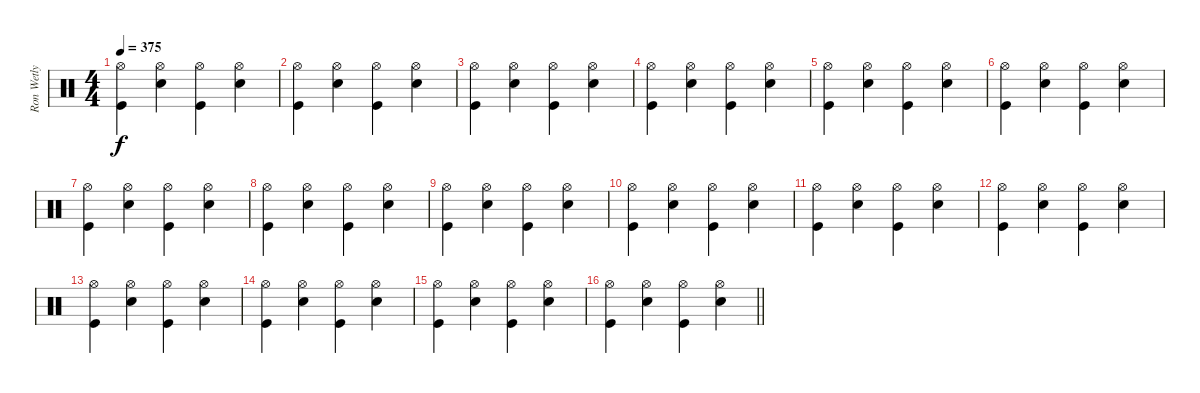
\track ("Ron Wetly (Drums)" "Ron Wetly ") {instrument percussion}
\staff {score}
\articulation defaults
\ts (4 4)
\tempo 375
\clef neutral
\ks c
("Hi-Hat (open)" "Kick (hit)").4{dy f} ("Hi-Hat (open)" "Snare (hit) 2").4 ("Hi-Hat (open)" "Kick (hit)").4 ("Hi-Hat (open)" "Snare (hit) 2").4 |
("Hi-Hat (open)" "Kick (hit)").4 ("Hi-Hat (open)" "Snare (hit) 2").4 ("Hi-Hat (open)" "Kick (hit)").4 ("Hi-Hat (open)" "Snare (hit) 2").4 |
("Hi-Hat (open)" "Kick (hit)").4 ("Hi-Hat (open)" "Snare (hit) 2").4 ("Hi-Hat (open)" "Kick (hit)").4 ("Hi-Hat (open)" "Snare (hit) 2").4 |
("Hi-Hat (open)" "Kick (hit)").4 ("Hi-Hat (open)" "Snare (hit) 2").4 ("Hi-Hat (open)" "Kick (hit)").4 ("Hi-Hat (open)" "Snare (hit) 2").4 |
("Hi-Hat (open)" "Kick (hit)").4 ("Hi-Hat (open)" "Snare (hit) 2").4 ("Hi-Hat (open)" "Kick (hit)").4 ("Hi-Hat (open)" "Snare (hit) 2").4 |
("Hi-Hat (open)" "Kick (hit)").4 ("Hi-Hat (open)" "Snare (hit) 2").4 ("Hi-Hat (open)" "Kick (hit)").4 ("Hi-Hat (open)" "Snare (hit) 2").4 |
("Hi-Hat (open)" "Kick (hit)").4 ("Hi-Hat (open)" "Snare (hit) 2").4 ("Hi-Hat (open)" "Kick (hit)").4 ("Hi-Hat (open)" "Snare (hit) 2").4 |
("Hi-Hat (open)" "Kick (hit)").4 ("Hi-Hat (open)" "Snare (hit) 2").4 ("Hi-Hat (open)" "Kick (hit)").4 ("Hi-Hat (open)" "Snare (hit) 2").4 |
("Hi-Hat (open)" "Kick (hit)").4 ("Hi-Hat (open)" "Snare (hit) 2").4 ("Hi-Hat (open)" "Kick (hit)").4 ("Hi-Hat (open)" "Snare (hit) 2").4 |
("Hi-Hat (open)" "Kick (hit)").4 ("Hi-Hat (open)" "Snare (hit) 2").4 ("Hi-Hat (open)" "Kick (hit)").4 ("Hi-Hat (open)" "Snare (hit) 2").4 |
("Hi-Hat (open)" "Kick (hit)").4 ("Hi-Hat (open)" "Snare (hit) 2").4 ("Hi-Hat (open)" "Kick (hit)").4 ("Hi-Hat (open)" "Snare (hit) 2").4 |
("Hi-Hat (open)" "Kick (hit)").4 ("Hi-Hat (open)" "Snare (hit) 2").4 ("Hi-Hat (open)" "Kick (hit)").4 ("Hi-Hat (open)" "Snare (hit) 2").4 |
("Hi-Hat (open)" "Kick (hit)").4 ("Hi-Hat (open)" "Snare (hit) 2").4 ("Hi-Hat (open)" "Kick (hit)").4 ("Hi-Hat (open)" "Snare (hit) 2").4 |
("Hi-Hat (open)" "Kick (hit)").4 ("Hi-Hat (open)" "Snare (hit) 2").4 ("Hi-Hat (open)" "Kick (hit)").4 ("Hi-Hat (open)" "Snare (hit) 2").4 |
("Hi-Hat (open)" "Kick (hit)").4 ("Hi-Hat (open)" "Snare (hit) 2").4 ("Hi-Hat (open)" "Kick (hit)").4 ("Hi-Hat (open)" "Snare (hit) 2").4 |
\barLineRight lightlight
("Hi-Hat (open)" "Kick (hit)").4 ("Hi-Hat (open)" "Snare (hit) 2").4 ("Hi-Hat (open)" "Kick (hit)").4 ("Hi-Hat (open)" "Snare (hit) 2").4
